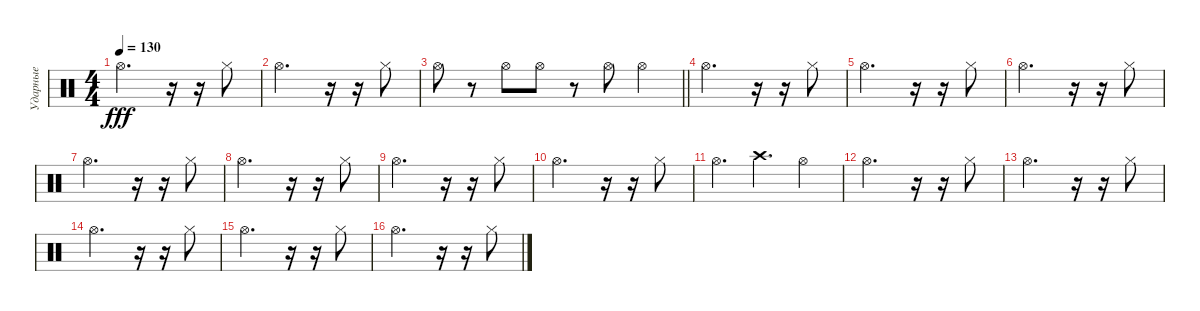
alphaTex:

\track ("Ударные" "Ударные") {instrument percussion}
\staff {score}
\articulation defaults
\ts (4 4)
\tempo 130
\clef neutral
\ks c "Hi-Hat (open)".2{d dy fff}
r.16 r.16 "Hi-Hat (closed)".8 |
"Hi-Hat (open)".2{d} r.16 r.16 "Hi-Hat (closed)".8 |
\barLineRight lightlight "Hi-Hat (open)".8
r.8 "Hi-Hat (open)".8 "Hi-Hat (open)".8 r.8 "Hi-Hat (open)".8 "Hi-Hat (open)".4 |
"Hi-Hat (open)".2{d} r.16 r.16 "Hi-Hat (closed)".8 |
"Hi-Hat (open)".2{d} r.16 r.16 "Hi-Hat (closed)".8 |
"Hi-Hat (open)".2{d} r.16 r.16 "Hi-Hat (closed)".8 |
"Hi-Hat (open)".2{d} r.16 r.16 "Hi-Hat (closed)".8 |
"Hi-Hat (open)".2{d} r.16 r.16 "Hi-Hat (closed)".8 |
"Hi-Hat (open)".2{d} r.16 r.16 "Hi-Hat (closed)".8 |
"Hi-Hat (open)".2{d} r.16 r.16 "Hi-Hat (closed)".8 |
"Hi-Hat (open)".4{d} "Crash high (hit)".4{d} "Hi-Hat (open)".4 |
"Hi-Hat (open)".2{d} r.16 r.16 "Hi-Hat (closed)".8 |
"Hi-Hat (open)".2{d} r.16 r.16 "Hi-Hat (closed)".8 |
"Hi-Hat (open)".2{d} r.16 r.16 "Hi-Hat (closed)".8 |
"Hi-Hat (open)".2{d} r.16 r.16 "Hi-Hat (closed)".8 |
"Hi-Hat (open)".2{d} r.16 r.16 "Hi-Hat (closed)".8
